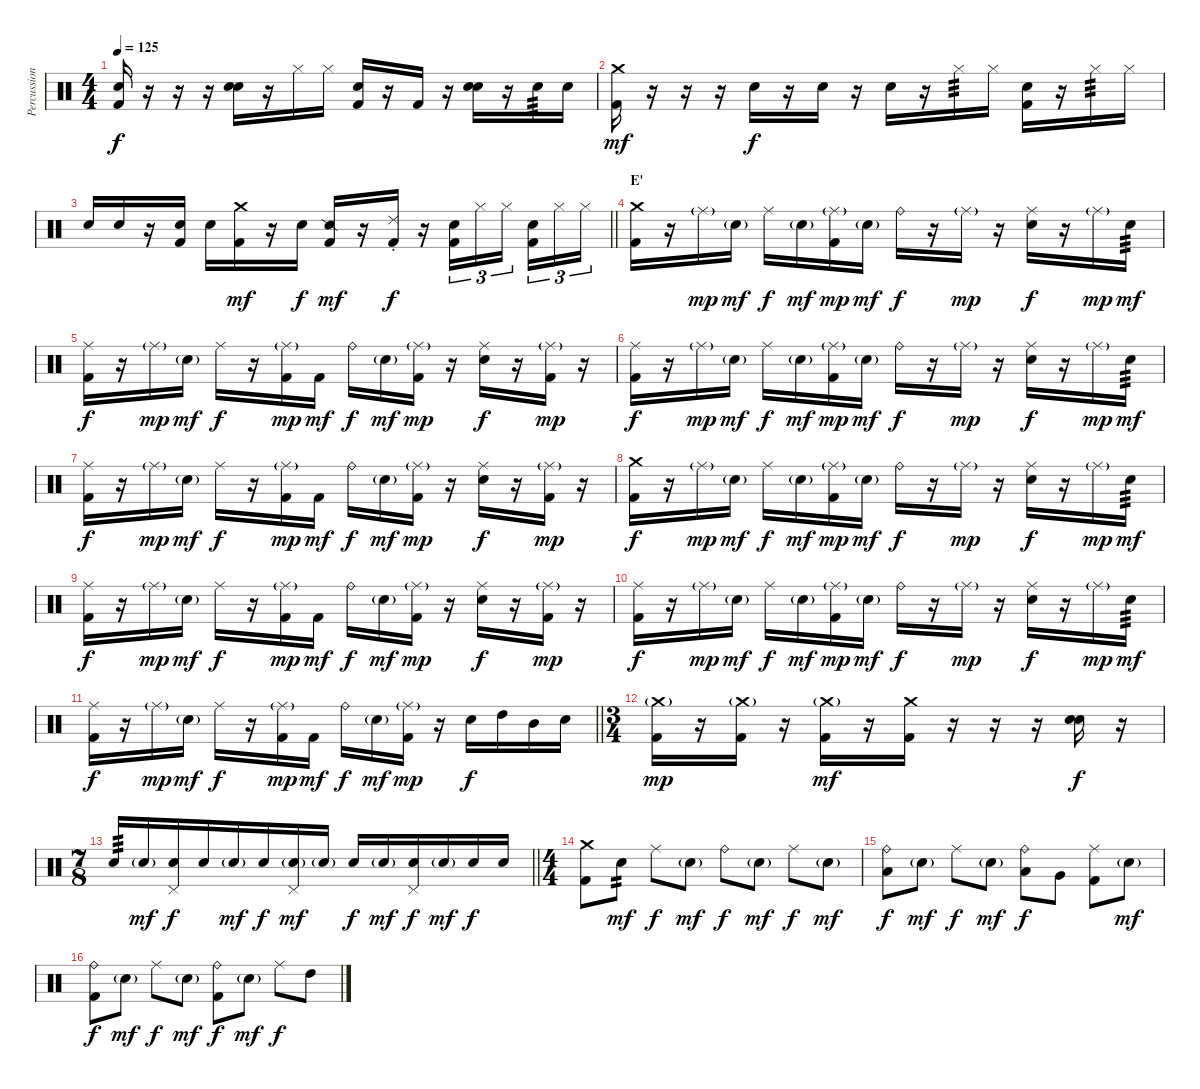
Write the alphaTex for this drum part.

\track ("Percussion" "Percussion") {instrument percussion}
\staff {score}
\articulation defaults
\ts (4 4)
\tempo 125
\clef neutral
\ks c
("Snare (hit)" "Kick (hit) 2").16{dy f} r.16 r.16 r.16 ("Snare (hit)" "Snare (hit) 2").16 r.16 "Hi-Hat (closed)".16 "Hi-Hat (closed)".16 ("Snare (hit)" "Kick (hit) 2").16 r.16 "Kick (hit) 2".16 r.16 ("Snare (hit)" "Snare (hit) 2").16 r.16 "Snare (hit) 2".16{tp 3} "Snare (hit) 2".16 |
("Crash medium (hit)" "Kick (hit) 2").16{dy mf} r.16 r.16 r.16 "Snare (hit)".16{dy f} r.16 "Snare (hit) 2".16 r.16 "Snare (hit)".16 r.16 "Hi-Hat (closed)".16{tp 3} "Hi-Hat (closed)".16 ("Snare (hit)" "Kick (hit) 2").16 r.16 "Hi-Hat (closed)".16{tp 3} "Hi-Hat (closed)".16 |
\barLineRight lightlight "Snare (hit)".16 "Snare (hit)".16
r.16 ("Snare (hit)" "Kick (hit) 2").16 "Snare (hit) 2".16 ("Crash medium (hit)" "Kick (hit) 2").16{dy mf} r.16 "Snare (hit) 2".16{dy f} ("Snare (side stick) 2" "Kick (hit) 2").16{dy mf} r.16 ("Ride (choke) 2" "Kick (hit) 2").16{dy f} r.16 ("Snare (hit)" "Kick (hit) 2").16{tu (3 2)} "Hi-Hat (closed)".16{tu (3 2)} "Hi-Hat (closed)".16{tu (3 2) beam splitsecondary} ("Snare (hit)" "Kick (hit) 2").16{tu (3 2)} "Hi-Hat (closed)".16{tu (3 2)} "Hi-Hat (closed)".16{tu (3 2)} |
\section ("" "E'")
("Crash medium (hit)" "Kick (hit) 2").16 r.16 "Ride (middle)"{g}.16{dy mp} "Snare (hit) 2"{g}.16{dy mf} "Ride (middle)".16{dy f} "Snare (hit) 2"{g}.16{dy mf} ("Ride (middle)"{g} "Kick (hit) 2").16{dy mp} "Snare (hit) 2"{g}.16{dy mf} "Ride (bell)".16{dy f} r.16 "Ride (middle)"{g}.16{dy mp} r.16 ("Ride (middle)" "Snare (hit) 2").16{dy f} r.16 "Ride (middle)"{g}.16{dy mp} "Snare (hit) 2".16{tp 3 dy mf} |
("Ride (middle)" "Kick (hit) 2").16{dy f} r.16 "Ride (middle)"{g}.16{dy mp} "Snare (hit) 2"{g}.16{dy mf} "Ride (middle)".16{dy f} r.16 ("Ride (middle)"{g} "Kick (hit) 2").16{dy mp} "Kick (hit) 2".16{dy mf} "Ride (bell)".16{dy f} "Snare (hit) 2"{g}.16{dy mf} ("Ride (middle)"{g} "Kick (hit) 2").16{dy mp} r.16 ("Ride (middle)" "Snare (hit) 2").16{dy f} r.16 ("Ride (middle)"{g} "Kick (hit) 2").16{dy mp} r.16 |
("Ride (middle)" "Kick (hit) 2").16{dy f} r.16 "Ride (middle)"{g}.16{dy mp} "Snare (hit) 2"{g}.16{dy mf} "Ride (middle)".16{dy f} "Snare (hit) 2"{g}.16{dy mf} ("Ride (middle)"{g} "Kick (hit) 2").16{dy mp} "Snare (hit) 2"{g}.16{dy mf} "Ride (bell)".16{dy f} r.16 "Ride (middle)"{g}.16{dy mp} r.16 ("Ride (middle)" "Snare (hit) 2").16{dy f} r.16 "Ride (middle)"{g}.16{dy mp} "Snare (hit) 2".16{tp 3 dy mf} |
("Ride (middle)" "Kick (hit) 2").16{dy f} r.16 "Ride (middle)"{g}.16{dy mp} "Snare (hit) 2"{g}.16{dy mf} "Ride (middle)".16{dy f} r.16 ("Ride (middle)"{g} "Kick (hit) 2").16{dy mp} "Kick (hit) 2".16{dy mf} "Ride (bell)".16{dy f} "Snare (hit) 2"{g}.16{dy mf} ("Ride (middle)"{g} "Kick (hit) 2").16{dy mp} r.16 ("Ride (middle)" "Snare (hit) 2").16{dy f} r.16 ("Ride (middle)"{g} "Kick (hit) 2").16{dy mp} r.16 |
("Crash medium (hit)" "Kick (hit) 2").16{dy f} r.16 "Ride (middle)"{g}.16{dy mp} "Snare (hit) 2"{g}.16{dy mf} "Ride (middle)".16{dy f} "Snare (hit) 2"{g}.16{dy mf} ("Ride (middle)"{g} "Kick (hit) 2").16{dy mp} "Snare (hit) 2"{g}.16{dy mf} "Ride (bell)".16{dy f} r.16 "Ride (middle)"{g}.16{dy mp} r.16 ("Ride (middle)" "Snare (hit) 2").16{dy f} r.16 "Ride (middle)"{g}.16{dy mp} "Snare (hit) 2".16{tp 3 dy mf} |
("Ride (middle)" "Kick (hit) 2").16{dy f} r.16 "Ride (middle)"{g}.16{dy mp} "Snare (hit) 2"{g}.16{dy mf} "Ride (middle)".16{dy f} r.16 ("Ride (middle)"{g} "Kick (hit) 2").16{dy mp} "Kick (hit) 2".16{dy mf} "Ride (bell)".16{dy f} "Snare (hit) 2"{g}.16{dy mf} ("Ride (middle)"{g} "Kick (hit) 2").16{dy mp} r.16 ("Ride (middle)" "Snare (hit) 2").16{dy f} r.16 ("Ride (middle)"{g} "Kick (hit) 2").16{dy mp} r.16 |
("Ride (middle)" "Kick (hit) 2").16{dy f} r.16 "Ride (middle)"{g}.16{dy mp} "Snare (hit) 2"{g}.16{dy mf} "Ride (middle)".16{dy f} "Snare (hit) 2"{g}.16{dy mf} ("Ride (middle)"{g} "Kick (hit) 2").16{dy mp} "Snare (hit) 2"{g}.16{dy mf} "Ride (bell)".16{dy f} r.16 "Ride (middle)"{g}.16{dy mp} r.16 ("Ride (middle)" "Snare (hit) 2").16{dy f} r.16 "Ride (middle)"{g}.16{dy mp} "Snare (hit) 2".16{tp 3 dy mf} |
\barLineRight lightlight
("Ride (middle)" "Kick (hit) 2").16{dy f} r.16 "Ride (middle)"{g}.16{dy mp} "Snare (hit) 2"{g}.16{dy mf} "Ride (middle)".16{dy f} r.16 ("Ride (middle)"{g} "Kick (hit) 2").16{dy mp} "Kick (hit) 2".16{dy mf} "Ride (bell)".16{dy f} "Snare (hit) 2"{g}.16{dy mf} ("Ride (middle)"{g} "Kick (hit) 2").16{dy mp} r.16 "Snare (hit) 2".16{dy f} "High Tom (hit)".16 "Mid Tom (hit)".16 "Snare (hit) 2".16 |
\ts (3 4)
("Crash medium (hit)"{g} "Kick (hit) 2").16{dy mp} r.16 ("Crash medium (hit)"{g} "Kick (hit) 2").16 r.16 ("Crash medium (hit)"{g} "Kick (hit) 2").16{dy mf} r.16 ("Crash medium (hit)" "Kick (hit) 2").16 r.16 r.16 r.16 ("Snare (hit)" "Snare (hit) 2").16{dy f} r.16 |
\ts (7 8)
\barLineRight lightlight "Snare (hit) 2".16{tp 3} "Snare (hit) 2"{g}.16{dy mf}
("Pedal Hi-Hat (hit)" "Snare (hit) 2").16{dy f} "Snare (hit) 2".16 "Snare (hit) 2"{g}.16{dy mf} "Snare (hit) 2".16{dy f} ("Pedal Hi-Hat (hit)" "Snare (hit) 2"{g}).16{dy mf} "Snare (hit) 2"{g}.16 "Snare (hit) 2".16{dy f} "Snare (hit) 2"{g}.16{dy mf} ("Pedal Hi-Hat (hit)" "Snare (hit) 2").16{dy f} "Snare (hit) 2"{g}.16{dy mf} "Snare (hit) 2".16{dy f} "Snare (hit) 2".16 |
\ts (4 4)
\section ("" "")
("Crash medium (hit)" "Kick (hit) 2").8 "Snare (hit) 2".8{tp 2 dy mf} "Ride (middle)".8{dy f} "Snare (hit) 2"{g}.8{dy mf} "Ride (bell)".8{dy f} "Snare (hit) 2"{g}.8{dy mf} "Ride (middle)".8{dy f} "Snare (hit) 2"{g}.8{dy mf} |
("Ride (bell)" "Low Tom (hit)").8{dy f} "Snare (hit) 2"{g}.8{dy mf} "Ride (middle)".8{dy f} "Snare (hit) 2"{g}.8{dy mf} ("Ride (bell)" "Low Tom (hit)").8{dy f} "Very Low Tom (hit)".8 ("Ride (middle)" "Kick (hit) 2").8 "Snare (hit) 2"{g}.8{dy mf} |
("Ride (bell)" "Kick (hit) 2").8{dy f} "Snare (hit) 2"{g}.8{dy mf} "Ride (middle)".8{dy f} "Snare (hit) 2"{g}.8{dy mf} ("Ride (bell)" "Kick (hit) 2").8{dy f} "Snare (hit) 2"{g}.8{dy mf} "Ride (middle)".8{dy f} "High Tom (hit)".8
